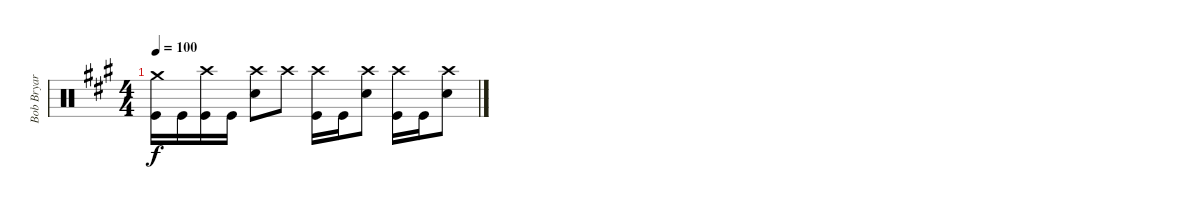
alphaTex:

\track ("Bob Bryar" "Bob Bryar") {instrument percussion}
\staff {score}
\articulation defaults
\ts (4 4)
\tempo 100
\clef neutral
\ks a
("Crash medium (hit)" "Kick (hit)").16{dy f} "Kick (hit)".16 ("Crash high (hit)" "Kick (hit)").16 "Kick (hit)".16 ("Crash high (hit)" "Snare (hit) 2").8 "Crash high (hit)".8 ("Crash high (hit)" "Kick (hit)").16 "Kick (hit)".16 ("Crash high (hit)" "Snare (hit) 2").8 ("Crash high (hit)" "Kick (hit)").16 "Kick (hit)".16 ("Crash high (hit)" "Snare (hit) 2").8
